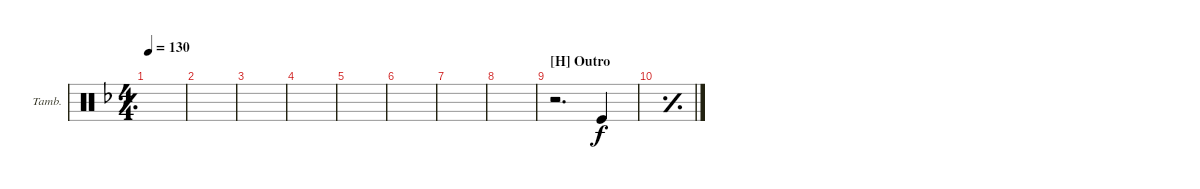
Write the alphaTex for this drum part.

\defaultSystemsLayout 4
\bracketExtendMode groupsimilarinstruments
\firstSystemTrackNameOrientation horizontal
\otherSystemsTrackNameOrientation horizontal
\track ("Tambourine" "Tamb.") {instrument percussion}
\staff {score}
\articulation defaults
\ts (4 4)
\tempo 130
\clef neutral
\simile simple
\ks f
|
|
|
|
|
|
|
|
\section ("H" "Outro")
r.2{d} "Kick (hit)".4 |
\simile simple
